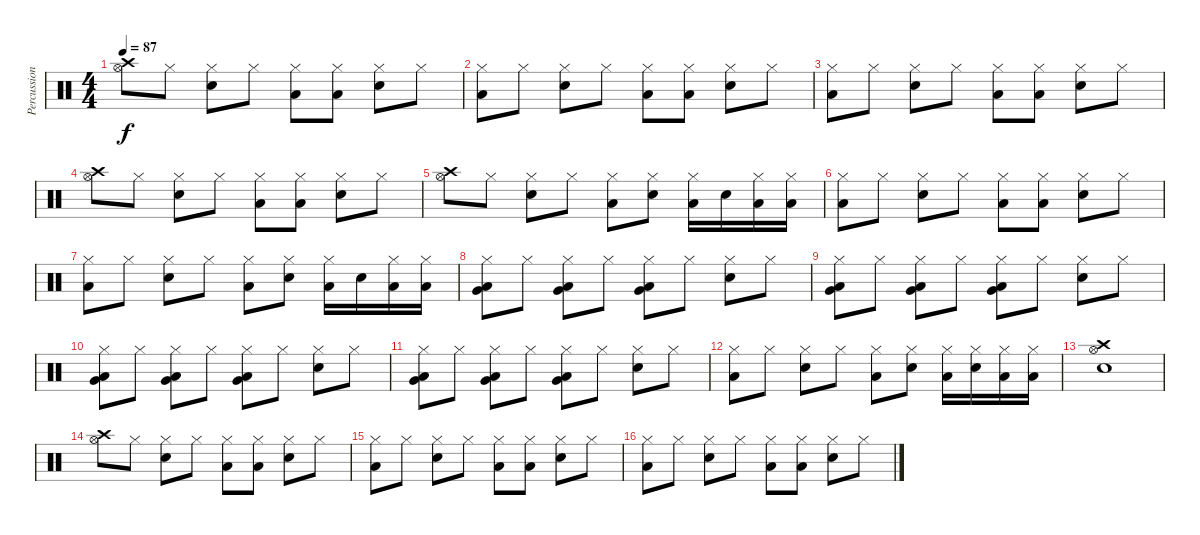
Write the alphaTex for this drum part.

\track ("Percussion" "Percussion") {instrument percussion}
\staff {score}
\articulation defaults
\ts (4 4)
\tempo 87
\clef neutral
\ks c
("Crash high (hit)" "Hi-Hat (open)").8{dy f} "Hi-Hat (closed)".8 ("Hi-Hat (closed)" "Electric Snare (hit)").8 "Hi-Hat (closed)".8 ("Hi-Hat (closed)" "Low Floor Tom (hit)").8 ("Hi-Hat (closed)" "Low Floor Tom (hit)").8 ("Hi-Hat (closed)" "Electric Snare (hit)").8 "Hi-Hat (closed)".8 |
("Hi-Hat (closed)" "Low Floor Tom (hit)").8 "Hi-Hat (closed)".8 ("Hi-Hat (closed)" "Electric Snare (hit)").8 "Hi-Hat (closed)".8 ("Hi-Hat (closed)" "Low Floor Tom (hit)").8 ("Hi-Hat (closed)" "Low Floor Tom (hit)").8 ("Hi-Hat (closed)" "Electric Snare (hit)").8 "Hi-Hat (closed)".8 |
("Hi-Hat (closed)" "Low Floor Tom (hit)").8 "Hi-Hat (closed)".8 ("Hi-Hat (closed)" "Electric Snare (hit)").8 "Hi-Hat (closed)".8 ("Hi-Hat (closed)" "Low Floor Tom (hit)").8 ("Hi-Hat (closed)" "Low Floor Tom (hit)").8 ("Hi-Hat (closed)" "Electric Snare (hit)").8 "Hi-Hat (closed)".8 |
("Crash high (hit)" "Hi-Hat (open)").8 "Hi-Hat (closed)".8 ("Hi-Hat (closed)" "Electric Snare (hit)").8 "Hi-Hat (closed)".8 ("Hi-Hat (closed)" "Low Floor Tom (hit)").8 ("Hi-Hat (closed)" "Low Floor Tom (hit)").8 ("Hi-Hat (closed)" "Electric Snare (hit)").8 "Hi-Hat (closed)".8 |
("Crash high (hit)" "Hi-Hat (open)").8 "Hi-Hat (closed)".8 ("Hi-Hat (closed)" "Electric Snare (hit)").8 "Hi-Hat (closed)".8 ("Hi-Hat (closed)" "Low Floor Tom (hit)").8 ("Hi-Hat (closed)" "Electric Snare (hit)").8 ("Hi-Hat (closed)" "Low Floor Tom (hit)").16 "Electric Snare (hit)".16 ("Hi-Hat (closed)" "Low Floor Tom (hit)").16 ("Hi-Hat (closed)" "Low Floor Tom (hit)").16 |
("Hi-Hat (closed)" "Low Floor Tom (hit)").8 "Hi-Hat (closed)".8 ("Hi-Hat (closed)" "Electric Snare (hit)").8 "Hi-Hat (closed)".8 ("Hi-Hat (closed)" "Low Floor Tom (hit)").8 ("Hi-Hat (closed)" "Low Floor Tom (hit)").8 ("Hi-Hat (closed)" "Electric Snare (hit)").8 "Hi-Hat (closed)".8 |
("Hi-Hat (closed)" "Low Floor Tom (hit)").8 "Hi-Hat (closed)".8 ("Hi-Hat (closed)" "Electric Snare (hit)").8 "Hi-Hat (closed)".8 ("Hi-Hat (closed)" "Low Floor Tom (hit)").8 ("Hi-Hat (closed)" "Electric Snare (hit)").8 ("Hi-Hat (closed)" "Low Floor Tom (hit)").16 "Electric Snare (hit)".16 ("Hi-Hat (closed)" "Low Floor Tom (hit)").16 ("Hi-Hat (closed)" "Low Floor Tom (hit)").16 |
("Hi-Hat (closed)" "Very Low Tom (hit)" "Low Floor Tom (hit)").8 "Hi-Hat (closed)".8 ("Hi-Hat (closed)" "Very Low Tom (hit)" "Low Floor Tom (hit)").8 "Hi-Hat (closed)".8 ("Hi-Hat (closed)" "Very Low Tom (hit)" "Low Floor Tom (hit)").8 "Hi-Hat (closed)".8 ("Hi-Hat (closed)" "Electric Snare (hit)").8 "Hi-Hat (closed)".8 |
("Hi-Hat (closed)" "Very Low Tom (hit)" "Low Floor Tom (hit)").8 "Hi-Hat (closed)".8 ("Hi-Hat (closed)" "Very Low Tom (hit)" "Low Floor Tom (hit)").8 "Hi-Hat (closed)".8 ("Hi-Hat (closed)" "Very Low Tom (hit)" "Low Floor Tom (hit)").8 "Hi-Hat (closed)".8 ("Hi-Hat (closed)" "Electric Snare (hit)").8 "Hi-Hat (closed)".8 |
("Hi-Hat (closed)" "Very Low Tom (hit)" "Low Floor Tom (hit)").8 "Hi-Hat (closed)".8 ("Hi-Hat (closed)" "Very Low Tom (hit)" "Low Floor Tom (hit)").8 "Hi-Hat (closed)".8 ("Hi-Hat (closed)" "Very Low Tom (hit)" "Low Floor Tom (hit)").8 "Hi-Hat (closed)".8 ("Hi-Hat (closed)" "Electric Snare (hit)").8 "Hi-Hat (closed)".8 |
("Hi-Hat (closed)" "Very Low Tom (hit)" "Low Floor Tom (hit)").8 "Hi-Hat (closed)".8 ("Hi-Hat (closed)" "Very Low Tom (hit)" "Low Floor Tom (hit)").8 "Hi-Hat (closed)".8 ("Hi-Hat (closed)" "Very Low Tom (hit)" "Low Floor Tom (hit)").8 "Hi-Hat (closed)".8 ("Hi-Hat (closed)" "Electric Snare (hit)").8 "Hi-Hat (closed)".8 |
("Hi-Hat (closed)" "Low Floor Tom (hit)").8 "Hi-Hat (closed)".8 ("Hi-Hat (closed)" "Electric Snare (hit)").8 "Hi-Hat (closed)".8 ("Hi-Hat (closed)" "Low Floor Tom (hit)").8 ("Hi-Hat (closed)" "Electric Snare (hit)").8 ("Hi-Hat (closed)" "Low Floor Tom (hit)").16 ("Hi-Hat (closed)" "Electric Snare (hit)").16 ("Hi-Hat (closed)" "Low Floor Tom (hit)").16 ("Hi-Hat (closed)" "Low Floor Tom (hit)").16 |
("Crash high (hit)" "Hi-Hat (open)" "Electric Snare (hit)").1 |
("Crash high (hit)" "Hi-Hat (open)").8 "Hi-Hat (closed)".8 ("Hi-Hat (closed)" "Electric Snare (hit)").8 "Hi-Hat (closed)".8 ("Hi-Hat (closed)" "Low Floor Tom (hit)").8 ("Hi-Hat (closed)" "Low Floor Tom (hit)").8 ("Hi-Hat (closed)" "Electric Snare (hit)").8 "Hi-Hat (closed)".8 |
("Hi-Hat (closed)" "Low Floor Tom (hit)").8 "Hi-Hat (closed)".8 ("Hi-Hat (closed)" "Electric Snare (hit)").8 "Hi-Hat (closed)".8 ("Hi-Hat (closed)" "Low Floor Tom (hit)").8 ("Hi-Hat (closed)" "Low Floor Tom (hit)").8 ("Hi-Hat (closed)" "Electric Snare (hit)").8 "Hi-Hat (closed)".8 |
("Hi-Hat (closed)" "Low Floor Tom (hit)").8 "Hi-Hat (closed)".8 ("Hi-Hat (closed)" "Electric Snare (hit)").8 "Hi-Hat (closed)".8 ("Hi-Hat (closed)" "Low Floor Tom (hit)").8 ("Hi-Hat (closed)" "Low Floor Tom (hit)").8 ("Hi-Hat (closed)" "Electric Snare (hit)").8 "Hi-Hat (closed)".8
